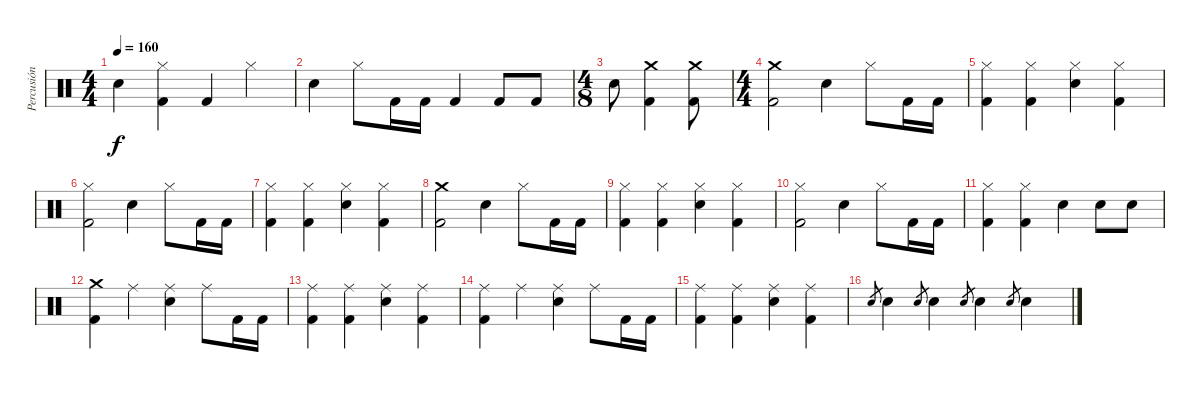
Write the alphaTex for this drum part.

\track ("Percusión" "Percusión") {instrument percussion}
\staff {score}
\articulation defaults
\ts (4 4)
\tempo 160
\clef neutral
\ks c "Snare (hit) 2".4{dy f}
("Kick (hit) 2" "Hi-Hat (closed)").4 "Kick (hit) 2".4 "Hi-Hat (closed)".4 |
"Snare (hit) 2".4 "Hi-Hat (closed)".8 "Kick (hit) 2".16 "Kick (hit) 2".16 "Kick (hit) 2".4 "Kick (hit) 2".8 "Kick (hit) 2".8 |
\ts (4 8)
"Snare (hit) 2".8 ("Kick (hit) 2" "Crash medium (hit)").4 ("Kick (hit) 2" "Crash medium (hit)").8 |
\ts (4 4)
("Kick (hit) 2" "Crash medium (hit)").2 "Snare (hit) 2".4 "Hi-Hat (closed)".8 "Kick (hit) 2".16 "Kick (hit) 2".16 |
("Kick (hit) 2" "Hi-Hat (closed)").4 ("Kick (hit) 2" "Hi-Hat (closed)").4 ("Snare (hit) 2" "Hi-Hat (closed)").4 ("Hi-Hat (closed)" "Kick (hit) 2").4 |
("Kick (hit) 2" "Hi-Hat (closed)").2 "Snare (hit) 2".4 "Hi-Hat (closed)".8 "Kick (hit) 2".16 "Kick (hit) 2".16 |
("Kick (hit) 2" "Hi-Hat (closed)").4 ("Kick (hit) 2" "Hi-Hat (closed)").4 ("Snare (hit) 2" "Hi-Hat (closed)").4 ("Hi-Hat (closed)" "Kick (hit) 2").4 |
("Kick (hit) 2" "Crash medium (hit)").2 "Snare (hit) 2".4 "Hi-Hat (closed)".8 "Kick (hit) 2".16 "Kick (hit) 2".16 |
("Kick (hit) 2" "Hi-Hat (closed)").4 ("Kick (hit) 2" "Hi-Hat (closed)").4 ("Snare (hit) 2" "Hi-Hat (closed)").4 ("Hi-Hat (closed)" "Kick (hit) 2").4 |
("Kick (hit) 2" "Hi-Hat (closed)").2 "Snare (hit) 2".4 "Hi-Hat (closed)".8 "Kick (hit) 2".16 "Kick (hit) 2".16 |
("Kick (hit) 2" "Hi-Hat (closed)").4 ("Kick (hit) 2" "Hi-Hat (closed)").4 "Snare (hit) 2".4 "Snare (hit) 2".8 "Snare (hit) 2".8 |
("Kick (hit) 2" "Crash medium (hit)").4 "Ride (middle)".4 ("Snare (hit) 2" "Ride (middle)").4 "Ride (middle)".8 "Kick (hit) 2".16 "Kick (hit) 2".16 |
("Ride (middle)" "Kick (hit) 2").4 ("Ride (middle)" "Kick (hit) 2").4 ("Ride (middle)" "Snare (hit) 2").4 ("Ride (middle)" "Kick (hit) 2").4 |
("Kick (hit) 2" "Ride (middle)").4 "Ride (middle)".4 ("Snare (hit) 2" "Ride (middle)").4 "Ride (middle)".8 "Kick (hit) 2".16 "Kick (hit) 2".16 |
("Ride (middle)" "Kick (hit) 2").4 ("Ride (middle)" "Kick (hit) 2").4 ("Ride (middle)" "Snare (hit) 2").4 ("Ride (middle)" "Kick (hit) 2").4 |
"Snare (hit) 2".8{gr} "Snare (hit) 2".4 "Snare (hit) 2".8{gr} "Snare (hit) 2".4 "Snare (hit) 2".8{gr} "Snare (hit) 2".4 "Snare (hit) 2".8{gr} "Snare (hit) 2".4
